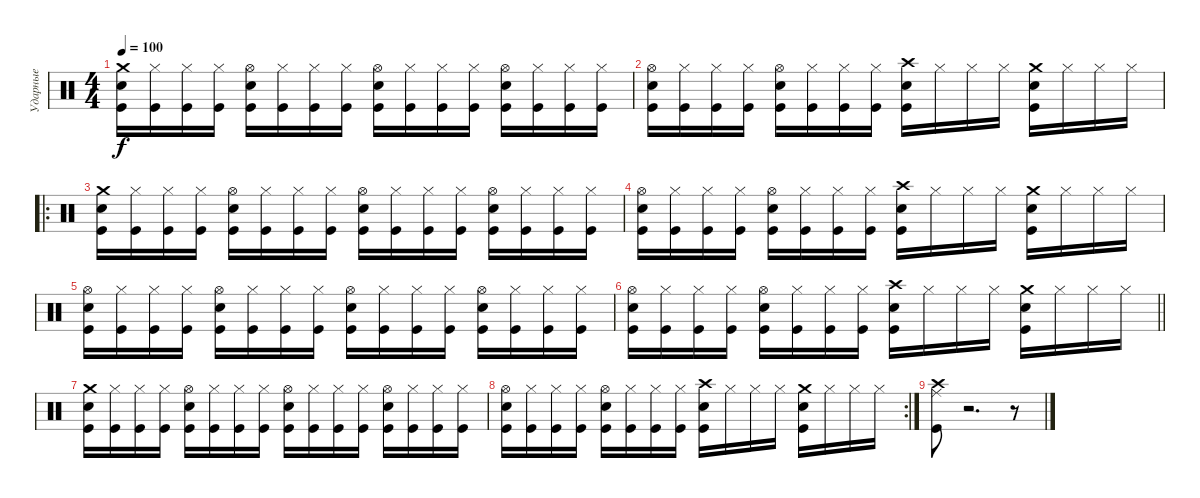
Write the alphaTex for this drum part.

\track ("Ударные" "Ударные") {instrument percussion}
\staff {score}
\articulation defaults
\ts (4 4)
\tempo 100
\clef neutral
\ks c
("Kick (hit)" "Snare (hit) 2" "Crash medium (hit)").16{dy f} ("Kick (hit)" "Hi-Hat (closed)").16 ("Kick (hit)" "Hi-Hat (closed)").16 ("Kick (hit)" "Hi-Hat (closed)").16 ("Kick (hit)" "Snare (hit) 2" "Hi-Hat (open)").16 ("Kick (hit)" "Hi-Hat (closed)").16 ("Kick (hit)" "Hi-Hat (closed)").16 ("Kick (hit)" "Hi-Hat (closed)").16 ("Kick (hit)" "Snare (hit) 2" "Hi-Hat (open)").16 ("Kick (hit)" "Hi-Hat (closed)").16 ("Kick (hit)" "Hi-Hat (closed)").16 ("Kick (hit)" "Hi-Hat (closed)").16 ("Kick (hit)" "Snare (hit) 2" "Hi-Hat (open)").16 ("Kick (hit)" "Hi-Hat (closed)").16 ("Kick (hit)" "Hi-Hat (closed)").16 ("Kick (hit)" "Hi-Hat (closed)").16 |
("Kick (hit)" "Snare (hit) 2" "Hi-Hat (open)").16 ("Kick (hit)" "Hi-Hat (closed)").16 ("Kick (hit)" "Hi-Hat (closed)").16 ("Kick (hit)" "Hi-Hat (closed)").16 ("Kick (hit)" "Snare (hit) 2" "Hi-Hat (open)").16 ("Kick (hit)" "Hi-Hat (closed)").16 ("Kick (hit)" "Hi-Hat (closed)").16 ("Kick (hit)" "Hi-Hat (closed)").16 ("Crash high (hit)" "Kick (hit)" "Snare (hit) 2").16 "Hi-Hat (closed)".16 "Hi-Hat (closed)".16 "Hi-Hat (closed)".16 ("Crash medium (hit)" "Kick (hit)" "Snare (hit) 2").16 "Hi-Hat (closed)".16 "Hi-Hat (closed)".16 "Hi-Hat (closed)".16 |
\ro
("Kick (hit)" "Snare (hit) 2" "Crash medium (hit)").16 ("Kick (hit)" "Hi-Hat (closed)").16 ("Kick (hit)" "Hi-Hat (closed)").16 ("Kick (hit)" "Hi-Hat (closed)").16 ("Kick (hit)" "Snare (hit) 2" "Hi-Hat (open)").16 ("Kick (hit)" "Hi-Hat (closed)").16 ("Kick (hit)" "Hi-Hat (closed)").16 ("Kick (hit)" "Hi-Hat (closed)").16 ("Kick (hit)" "Snare (hit) 2" "Hi-Hat (open)").16 ("Kick (hit)" "Hi-Hat (closed)").16 ("Kick (hit)" "Hi-Hat (closed)").16 ("Kick (hit)" "Hi-Hat (closed)").16 ("Kick (hit)" "Snare (hit) 2" "Hi-Hat (open)").16 ("Kick (hit)" "Hi-Hat (closed)").16 ("Kick (hit)" "Hi-Hat (closed)").16 ("Kick (hit)" "Hi-Hat (closed)").16 |
("Kick (hit)" "Snare (hit) 2" "Hi-Hat (open)").16 ("Kick (hit)" "Hi-Hat (closed)").16 ("Kick (hit)" "Hi-Hat (closed)").16 ("Kick (hit)" "Hi-Hat (closed)").16 ("Kick (hit)" "Snare (hit) 2" "Hi-Hat (open)").16 ("Kick (hit)" "Hi-Hat (closed)").16 ("Kick (hit)" "Hi-Hat (closed)").16 ("Kick (hit)" "Hi-Hat (closed)").16 ("Crash high (hit)" "Kick (hit)" "Snare (hit) 2").16 "Hi-Hat (closed)".16 "Hi-Hat (closed)".16 "Hi-Hat (closed)".16 ("Crash medium (hit)" "Kick (hit)" "Snare (hit) 2").16 "Hi-Hat (closed)".16 "Hi-Hat (closed)".16 "Hi-Hat (closed)".16 |
("Kick (hit)" "Snare (hit) 2" "Hi-Hat (open)").16 ("Kick (hit)" "Hi-Hat (closed)").16 ("Kick (hit)" "Hi-Hat (closed)").16 ("Kick (hit)" "Hi-Hat (closed)").16 ("Kick (hit)" "Snare (hit) 2" "Hi-Hat (open)").16 ("Kick (hit)" "Hi-Hat (closed)").16 ("Kick (hit)" "Hi-Hat (closed)").16 ("Kick (hit)" "Hi-Hat (closed)").16 ("Kick (hit)" "Snare (hit) 2" "Hi-Hat (open)").16 ("Kick (hit)" "Hi-Hat (closed)").16 ("Kick (hit)" "Hi-Hat (closed)").16 ("Kick (hit)" "Hi-Hat (closed)").16 ("Kick (hit)" "Snare (hit) 2" "Hi-Hat (open)").16 ("Kick (hit)" "Hi-Hat (closed)").16 ("Kick (hit)" "Hi-Hat (closed)").16 ("Kick (hit)" "Hi-Hat (closed)").16 |
\barLineRight lightlight
("Kick (hit)" "Snare (hit) 2" "Hi-Hat (open)").16 ("Kick (hit)" "Hi-Hat (closed)").16 ("Kick (hit)" "Hi-Hat (closed)").16 ("Kick (hit)" "Hi-Hat (closed)").16 ("Kick (hit)" "Snare (hit) 2" "Hi-Hat (open)").16 ("Kick (hit)" "Hi-Hat (closed)").16 ("Kick (hit)" "Hi-Hat (closed)").16 ("Kick (hit)" "Hi-Hat (closed)").16 ("Crash high (hit)" "Kick (hit)" "Snare (hit) 2").16 "Hi-Hat (closed)".16 "Hi-Hat (closed)".16 "Hi-Hat (closed)".16 ("Crash medium (hit)" "Kick (hit)" "Snare (hit) 2").16 "Hi-Hat (closed)".16 "Hi-Hat (closed)".16 "Hi-Hat (closed)".16 |
("Kick (hit)" "Snare (hit) 2" "Crash medium (hit)").16 ("Kick (hit)" "Hi-Hat (closed)").16 ("Kick (hit)" "Hi-Hat (closed)").16 ("Kick (hit)" "Hi-Hat (closed)").16 ("Kick (hit)" "Snare (hit) 2" "Hi-Hat (open)").16 ("Kick (hit)" "Hi-Hat (closed)").16 ("Kick (hit)" "Hi-Hat (closed)").16 ("Kick (hit)" "Hi-Hat (closed)").16 ("Kick (hit)" "Snare (hit) 2" "Hi-Hat (open)").16 ("Kick (hit)" "Hi-Hat (closed)").16 ("Kick (hit)" "Hi-Hat (closed)").16 ("Kick (hit)" "Hi-Hat (closed)").16 ("Kick (hit)" "Snare (hit) 2" "Hi-Hat (open)").16 ("Kick (hit)" "Hi-Hat (closed)").16 ("Kick (hit)" "Hi-Hat (closed)").16 ("Kick (hit)" "Hi-Hat (closed)").16 |
\rc 2
("Kick (hit)" "Snare (hit) 2" "Hi-Hat (open)").16 ("Kick (hit)" "Hi-Hat (closed)").16 ("Kick (hit)" "Hi-Hat (closed)").16 ("Kick (hit)" "Hi-Hat (closed)").16 ("Kick (hit)" "Snare (hit) 2" "Hi-Hat (open)").16 ("Kick (hit)" "Hi-Hat (closed)").16 ("Kick (hit)" "Hi-Hat (closed)").16 ("Kick (hit)" "Hi-Hat (closed)").16 ("Crash high (hit)" "Kick (hit)" "Snare (hit) 2").16 "Hi-Hat (closed)".16 "Hi-Hat (closed)".16 "Hi-Hat (closed)".16 ("Crash medium (hit)" "Kick (hit)" "Snare (hit) 2").16 "Hi-Hat (closed)".16 "Hi-Hat (closed)".16 "Hi-Hat (closed)".16 |
("Ride (middle)" "Crash high (hit)" "Kick (hit)").8 r.2{d} r.8
